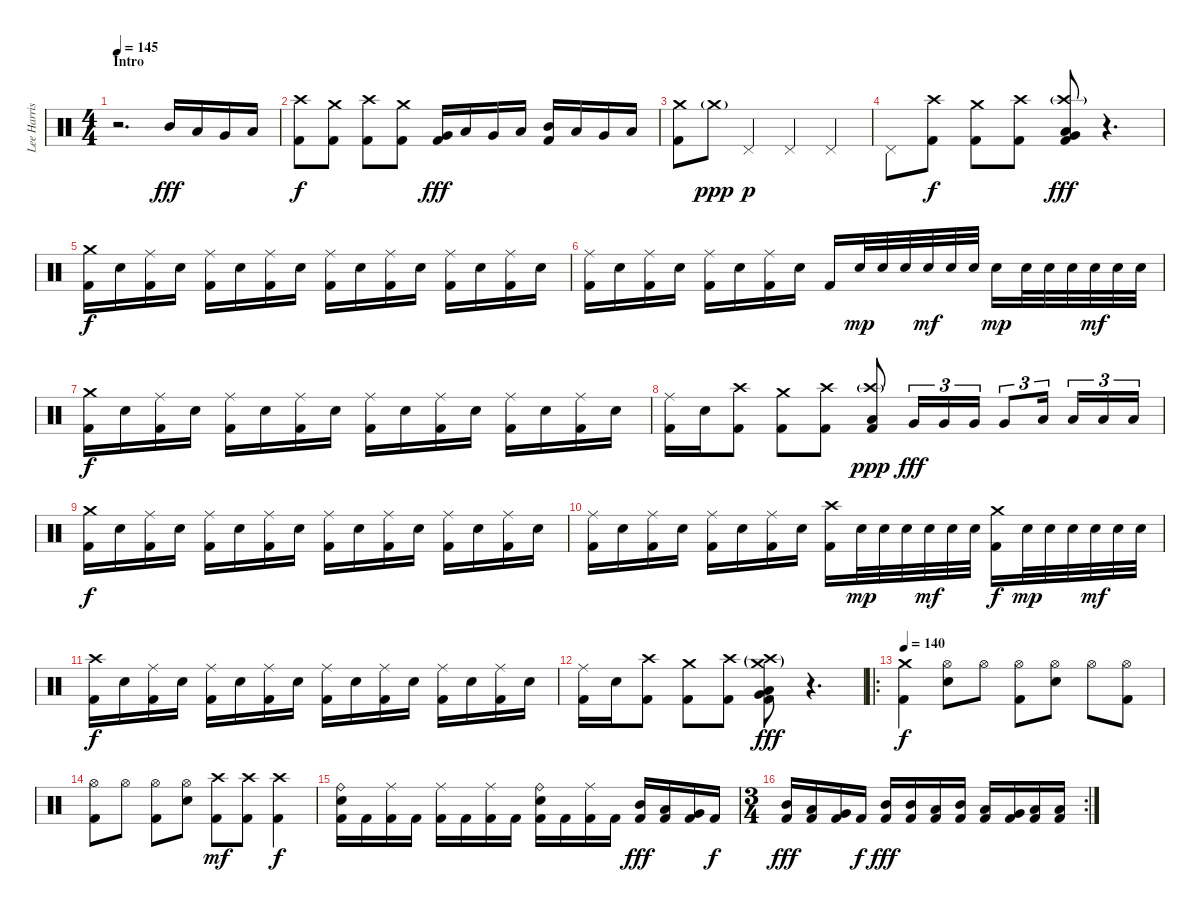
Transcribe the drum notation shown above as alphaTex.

\track ("Lee Harrison" "Lee Harris") {instrument percussion}
\staff {score}
\articulation defaults
\ts (4 4)
\section ("" "Intro")
\tempo 145
\clef neutral
\ks c
r.2{d dy fff} "Mid Tom (hit)".16 "Low Tom (hit)".16 "Very Low Tom (hit)".16 "Low Floor Tom (hit)".16 |
("Crash high (hit)" "Kick (hit) 2").8{dy f} ("Crash medium (hit)" "Kick (hit) 2").8 ("Crash high (hit)" "Kick (hit) 2").8 ("Crash medium (hit)" "Kick (hit) 2").8 ("Very Low Tom (hit)" "Kick (hit) 2").16{dy fff} "Low Tom (hit)".16 "Very Low Tom (hit)".16 "Low Tom (hit)".16 ("Mid Tom (hit)" "Kick (hit) 2").16 "Low Tom (hit)".16 "Very Low Tom (hit)".16 "Low Floor Tom (hit)".16 |
("Crash medium (hit)" "Kick (hit) 2").8 "Crash medium (hit)"{g}.8{dy ppp} "Pedal Hi-Hat (hit)".4{dy p} "Pedal Hi-Hat (hit)".4 "Pedal Hi-Hat (hit)".4 |
"Pedal Hi-Hat (hit)".8 ("Crash high (hit)" "Kick (hit) 2").8{dy f} ("Crash medium (hit)" "Kick (hit) 2").8 ("Crash high (hit)" "Kick (hit) 2").8 ("Crash high (hit)"{g} "Very Low Tom (hit)" "Low Floor Tom (hit)" "Kick (hit) 2").8{dy fff} r.4{d} |
("Crash medium (hit)" "Kick (hit) 2").16{dy f} "Electric Snare (hit)".16 ("Ride (middle)" "Kick (hit) 2").16 "Electric Snare (hit)".16 ("Ride (middle)" "Kick (hit) 2").16 "Electric Snare (hit)".16 ("Ride (middle)" "Kick (hit) 2").16 "Electric Snare (hit)".16 ("Ride (middle)" "Kick (hit) 2").16 "Electric Snare (hit)".16 ("Ride (middle)" "Kick (hit) 2").16 "Electric Snare (hit)".16 ("Ride (middle)" "Kick (hit) 2").16 "Electric Snare (hit)".16 ("Ride (middle)" "Kick (hit) 2").16 "Electric Snare (hit)".16 |
("Ride (middle)" "Kick (hit) 2").16 "Electric Snare (hit)".16 ("Ride (middle)" "Kick (hit) 2").16 "Electric Snare (hit)".16 ("Ride (middle)" "Kick (hit) 2").16 "Electric Snare (hit)".16 ("Ride (middle)" "Kick (hit) 2").16 "Electric Snare (hit)".16 "Kick (hit) 2".16 "Electric Snare (hit)".32{dy mp} "Electric Snare (hit)".32 "Electric Snare (hit)".32 "Electric Snare (hit)".32{dy mf} "Electric Snare (hit)".32 "Electric Snare (hit)".32 "Electric Snare (hit)".16{dy mp} "Electric Snare (hit)".32 "Electric Snare (hit)".32 "Electric Snare (hit)".32 "Electric Snare (hit)".32{dy mf} "Electric Snare (hit)".32 "Electric Snare (hit)".32 |
("Crash medium (hit)" "Kick (hit) 2").16{dy f} "Electric Snare (hit)".16 ("Ride (middle)" "Kick (hit) 2").16 "Electric Snare (hit)".16 ("Ride (middle)" "Kick (hit) 2").16 "Electric Snare (hit)".16 ("Ride (middle)" "Kick (hit) 2").16 "Electric Snare (hit)".16 ("Ride (middle)" "Kick (hit) 2").16 "Electric Snare (hit)".16 ("Ride (middle)" "Kick (hit) 2").16 "Electric Snare (hit)".16 ("Ride (middle)" "Kick (hit) 2").16 "Electric Snare (hit)".16 ("Ride (middle)" "Kick (hit) 2").16 "Electric Snare (hit)".16 |
("Ride (middle)" "Kick (hit) 2").16 "Electric Snare (hit)".16 ("Crash high (hit)" "Kick (hit) 2").8 ("Crash medium (hit)" "Kick (hit) 2").8 ("Crash high (hit)" "Kick (hit) 2").8 ("Crash high (hit)"{g} "Low Floor Tom (hit)" "Kick (hit) 2").8{dy ppp} "Very Low Tom (hit)".16{tu (3 2) dy fff} "Very Low Tom (hit)".16{tu (3 2)} "Very Low Tom (hit)".16{tu (3 2)} "Very Low Tom (hit)".8{tu (3 2)} "Low Floor Tom (hit)".16{tu (3 2)} "Low Floor Tom (hit)".16{tu (3 2)} "Low Floor Tom (hit)".16{tu (3 2)} "Low Floor Tom (hit)".16{tu (3 2)} |
("Crash medium (hit)" "Kick (hit) 2").16{dy f} "Electric Snare (hit)".16 ("Ride (middle)" "Kick (hit) 2").16 "Electric Snare (hit)".16 ("Ride (middle)" "Kick (hit) 2").16 "Electric Snare (hit)".16 ("Ride (middle)" "Kick (hit) 2").16 "Electric Snare (hit)".16 ("Ride (middle)" "Kick (hit) 2").16 "Electric Snare (hit)".16 ("Ride (middle)" "Kick (hit) 2").16 "Electric Snare (hit)".16 ("Ride (middle)" "Kick (hit) 2").16 "Electric Snare (hit)".16 ("Ride (middle)" "Kick (hit) 2").16 "Electric Snare (hit)".16 |
("Ride (middle)" "Kick (hit) 2").16 "Electric Snare (hit)".16 ("Ride (middle)" "Kick (hit) 2").16 "Electric Snare (hit)".16 ("Ride (middle)" "Kick (hit) 2").16 "Electric Snare (hit)".16 ("Ride (middle)" "Kick (hit) 2").16 "Electric Snare (hit)".16 ("Crash high (hit)" "Kick (hit) 2").16 "Electric Snare (hit)".32{dy mp} "Electric Snare (hit)".32 "Electric Snare (hit)".32 "Electric Snare (hit)".32{dy mf} "Electric Snare (hit)".32 "Electric Snare (hit)".32 ("Crash medium (hit)" "Kick (hit) 2").16{dy f} "Electric Snare (hit)".32{dy mp} "Electric Snare (hit)".32 "Electric Snare (hit)".32 "Electric Snare (hit)".32{dy mf} "Electric Snare (hit)".32 "Electric Snare (hit)".32 |
("Crash high (hit)" "Kick (hit) 2").16{dy f} "Electric Snare (hit)".16 ("Ride (middle)" "Kick (hit) 2").16 "Electric Snare (hit)".16 ("Ride (middle)" "Kick (hit) 2").16 "Electric Snare (hit)".16 ("Ride (middle)" "Kick (hit) 2").16 "Electric Snare (hit)".16 ("Ride (middle)" "Kick (hit) 2").16 "Electric Snare (hit)".16 ("Ride (middle)" "Kick (hit) 2").16 "Electric Snare (hit)".16 ("Ride (middle)" "Kick (hit) 2").16 "Electric Snare (hit)".16 ("Ride (middle)" "Kick (hit) 2").16 "Electric Snare (hit)".16 |
("Ride (middle)" "Kick (hit) 2").16 "Electric Snare (hit)".16 ("Crash high (hit)" "Kick (hit) 2").8 ("Crash medium (hit)" "Kick (hit) 2").8 ("Crash high (hit)" "Kick (hit) 2").8 ("Crash high (hit)"{g} "Crash medium (hit)"{g} "Very Low Tom (hit)" "Low Floor Tom (hit)" "Kick (hit) 2").8{dy fff} r.4{d volume 0} |
\ro
\tempo 140
("Crash medium (hit)" "Kick (hit) 2").4{dy f volume 14} ("Hi-Hat (open)" "Electric Snare (hit)").8 "Hi-Hat (open)".8 ("Hi-Hat (open)" "Kick (hit) 2").8 ("Hi-Hat (open)" "Electric Snare (hit)").8 "Hi-Hat (open)".8 ("Hi-Hat (open)" "Kick (hit) 2").8 |
("Hi-Hat (open)" "Kick (hit) 2").8 "Hi-Hat (open)".8 ("Hi-Hat (open)" "Kick (hit) 2").8 ("Hi-Hat (open)" "Electric Snare (hit)").8 ("Crash high (hit)" "Kick (hit) 2").8{dy mf} ("Crash high (hit)" "Kick (hit) 2").8 ("Crash high (hit)" "Kick (hit) 2").4{dy f} |
("Ride (bell)" "Electric Snare (hit)" "Kick (hit) 2").16 "Kick (hit) 2".16 ("Ride (middle)" "Kick (hit) 2").16 "Kick (hit) 2".16 ("Ride (middle)" "Kick (hit) 2").16 "Kick (hit) 2".16 ("Ride (middle)" "Kick (hit) 2").16 "Kick (hit) 2".16 ("Ride (bell)" "Electric Snare (hit)" "Kick (hit) 2").16 "Kick (hit) 2".16 ("Ride (middle)" "Kick (hit) 2").16 "Kick (hit) 2".16 ("Mid Tom (hit)" "Kick (hit) 2").16{dy fff} ("Low Tom (hit)" "Kick (hit) 2").16 ("Very Low Tom (hit)" "Kick (hit) 2").16 "Kick (hit) 2".16{dy f} |
\rc 2
\ts (3 4)
("Mid Tom (hit)" "Kick (hit) 2").16{dy fff} ("Low Tom (hit)" "Kick (hit) 2").16 ("Very Low Tom (hit)" "Kick (hit) 2").16 "Kick (hit) 2".16{dy f} ("Mid Tom (hit)" "Kick (hit) 2").16{dy fff} ("Mid Tom (hit)" "Kick (hit) 2").16 ("Low Tom (hit)" "Kick (hit) 2").16 ("Mid Tom (hit)" "Kick (hit) 2").16 ("Low Tom (hit)" "Kick (hit) 2").16 ("Very Low Tom (hit)" "Kick (hit) 2").16 ("Low Floor Tom (hit)" "Kick (hit) 2").16 ("Low Floor Tom (hit)" "Kick (hit) 2").16
